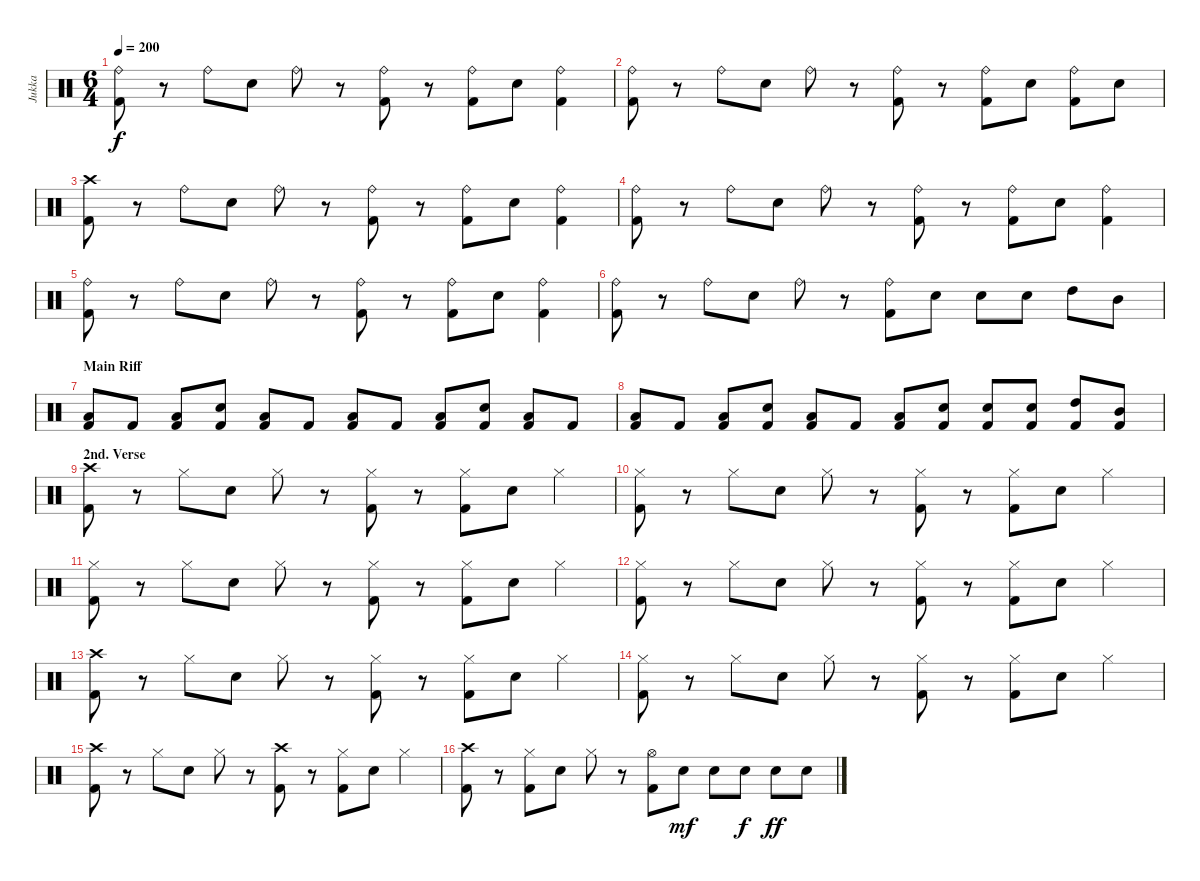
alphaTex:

\track ("Jukka" "Jukka") {instrument percussion}
\staff {score}
\articulation defaults
\ts (6 4)
\tempo 200
\clef neutral
\ks c
("Ride (bell)" "Kick (hit) 2").8{dy f} r.8 "Ride (bell)".8 "Snare (hit) 2".8 "Ride (bell)".8 r.8 ("Ride (bell)" "Kick (hit) 2").8 r.8 ("Ride (bell)" "Kick (hit) 2").8 "Snare (hit) 2".8 ("Ride (bell)" "Kick (hit) 2").4 |
("Ride (bell)" "Kick (hit) 2").8 r.8 "Ride (bell)".8 "Snare (hit) 2".8 "Ride (bell)".8 r.8 ("Ride (bell)" "Kick (hit) 2").8 r.8 ("Ride (bell)" "Kick (hit) 2").8 "Snare (hit) 2".8 ("Ride (bell)" "Kick (hit) 2").8 "Snare (hit) 2".8 |
("Crash high (hit)" "Kick (hit) 2").8 r.8 "Ride (bell)".8 "Snare (hit) 2".8 "Ride (bell)".8 r.8 ("Ride (bell)" "Kick (hit) 2").8 r.8 ("Ride (bell)" "Kick (hit) 2").8 "Snare (hit) 2".8 ("Ride (bell)" "Kick (hit) 2").4 |
("Ride (bell)" "Kick (hit) 2").8 r.8 "Ride (bell)".8 "Snare (hit) 2".8 "Ride (bell)".8 r.8 ("Ride (bell)" "Kick (hit) 2").8 r.8 ("Ride (bell)" "Kick (hit) 2").8 "Snare (hit) 2".8 ("Ride (bell)" "Kick (hit) 2").4 |
("Ride (bell)" "Kick (hit) 2").8 r.8 "Ride (bell)".8 "Snare (hit) 2".8 "Ride (bell)".8 r.8 ("Ride (bell)" "Kick (hit) 2").8 r.8 ("Ride (bell)" "Kick (hit) 2").8 "Snare (hit) 2".8 ("Ride (bell)" "Kick (hit) 2").4 |
("Ride (bell)" "Kick (hit) 2").8 r.8 "Ride (bell)".8 "Snare (hit) 2".8 "Ride (bell)".8 r.8 ("Ride (bell)" "Kick (hit) 2").8 "Snare (hit) 2".8 "Snare (hit) 2".8 "Snare (hit) 2".8 "High Tom (hit)".8 "Mid Tom (hit)".8 |
\section ("" "Main Riff")
("Low Floor Tom (hit)" "Kick (hit) 2").8 "Kick (hit) 2".8 ("Low Floor Tom (hit)" "Kick (hit) 2").8 ("Snare (hit) 2" "Kick (hit) 2").8 ("Low Floor Tom (hit)" "Kick (hit) 2").8 "Kick (hit) 2".8 ("Low Floor Tom (hit)" "Kick (hit) 2").8 "Kick (hit) 2".8 ("Low Floor Tom (hit)" "Kick (hit) 2").8 ("Snare (hit) 2" "Kick (hit) 2").8 ("Low Floor Tom (hit)" "Kick (hit) 2").8 "Kick (hit) 2".8 |
("Low Floor Tom (hit)" "Kick (hit) 2").8 "Kick (hit) 2".8 ("Low Floor Tom (hit)" "Kick (hit) 2").8 ("Snare (hit) 2" "Kick (hit) 2").8 ("Low Floor Tom (hit)" "Kick (hit) 2").8 "Kick (hit) 2".8 ("Low Floor Tom (hit)" "Kick (hit) 2").8 ("Snare (hit) 2" "Kick (hit) 2").8 ("Snare (hit) 2" "Kick (hit) 2").8 ("Snare (hit) 2" "Kick (hit) 2").8 ("High Tom (hit)" "Kick (hit) 2").8 ("Mid Tom (hit)" "Kick (hit) 2").8 |
\section ("" "2nd. Verse")
("Crash high (hit)" "Kick (hit) 2").8 r.8 "Hi-Hat (closed)".8 "Snare (hit) 2".8 "Hi-Hat (closed)".8 r.8 ("Hi-Hat (closed)" "Kick (hit) 2").8 r.8 ("Hi-Hat (closed)" "Kick (hit) 2").8 "Snare (hit) 2".8 "Hi-Hat (closed)".4 |
("Hi-Hat (closed)" "Kick (hit) 2").8 r.8 "Hi-Hat (closed)".8 "Snare (hit) 2".8 "Hi-Hat (closed)".8 r.8 ("Hi-Hat (closed)" "Kick (hit) 2").8 r.8 ("Hi-Hat (closed)" "Kick (hit) 2").8 "Snare (hit) 2".8 "Hi-Hat (closed)".4 |
("Hi-Hat (closed)" "Kick (hit) 2").8 r.8 "Hi-Hat (closed)".8 "Snare (hit) 2".8 "Hi-Hat (closed)".8 r.8 ("Hi-Hat (closed)" "Kick (hit) 2").8 r.8 ("Hi-Hat (closed)" "Kick (hit) 2").8 "Snare (hit) 2".8 "Hi-Hat (closed)".4 |
("Hi-Hat (closed)" "Kick (hit) 2").8 r.8 "Hi-Hat (closed)".8 "Snare (hit) 2".8 "Hi-Hat (closed)".8 r.8 ("Hi-Hat (closed)" "Kick (hit) 2").8 r.8 ("Hi-Hat (closed)" "Kick (hit) 2").8 "Snare (hit) 2".8 "Hi-Hat (closed)".4 |
("Crash high (hit)" "Kick (hit) 2").8 r.8 "Hi-Hat (closed)".8 "Snare (hit) 2".8 "Hi-Hat (closed)".8 r.8 ("Hi-Hat (closed)" "Kick (hit) 2").8 r.8 ("Hi-Hat (closed)" "Kick (hit) 2").8 "Snare (hit) 2".8 "Hi-Hat (closed)".4 |
("Hi-Hat (closed)" "Kick (hit) 2").8 r.8 "Hi-Hat (closed)".8 "Snare (hit) 2".8 "Hi-Hat (closed)".8 r.8 ("Hi-Hat (closed)" "Kick (hit) 2").8 r.8 ("Hi-Hat (closed)" "Kick (hit) 2").8 "Snare (hit) 2".8 "Hi-Hat (closed)".4 |
("Crash high (hit)" "Kick (hit) 2").8 r.8 "Hi-Hat (closed)".8 "Snare (hit) 2".8 "Hi-Hat (closed)".8 r.8 ("Crash high (hit)" "Kick (hit) 2").8 r.8 ("Hi-Hat (closed)" "Kick (hit) 2").8 "Snare (hit) 2".8 "Hi-Hat (closed)".4 |
("Crash high (hit)" "Kick (hit) 2").8 r.8 ("Hi-Hat (closed)" "Kick (hit) 2").8 "Snare (hit) 2".8 "Hi-Hat (closed)".8 r.8 ("Hi-Hat (open)" "Kick (hit) 2").8 "Snare (hit) 2".8{dy mf} "Snare (hit) 2".8 "Snare (hit) 2".8{dy f} "Snare (hit) 2".8{dy ff} "Snare (hit) 2".8
